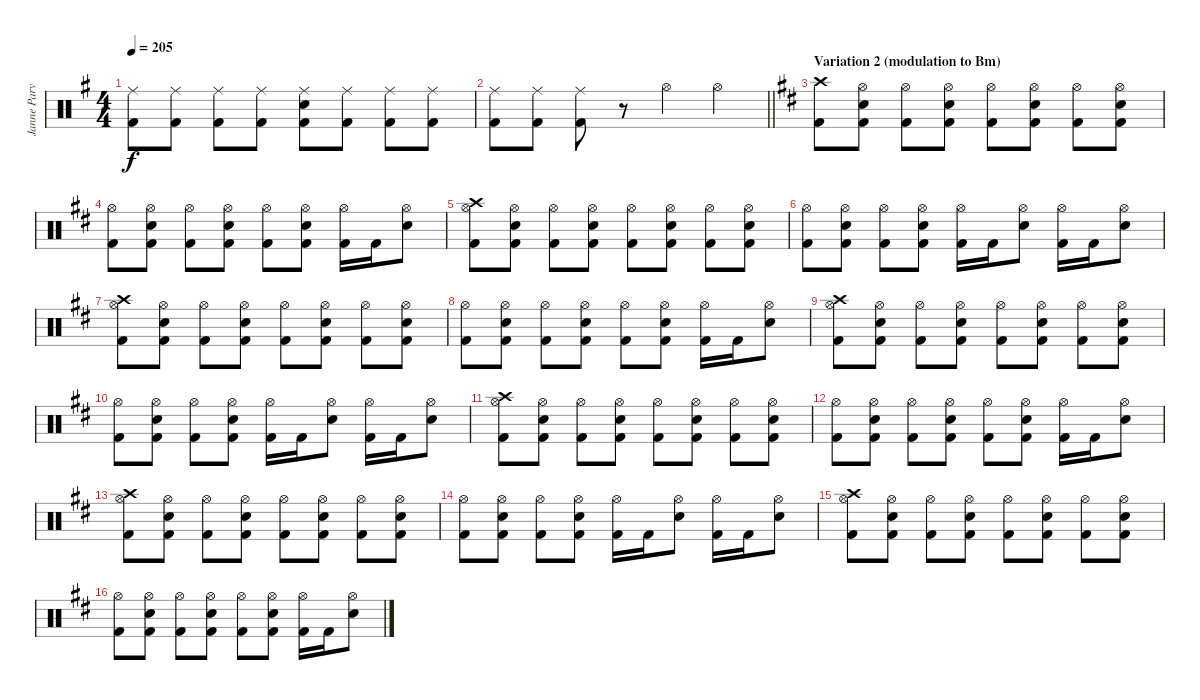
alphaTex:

\track ("Janne Parviainen" "Janne Parv") {instrument percussion}
\staff {score}
\articulation defaults
\ts (4 4)
\tempo 205
\clef neutral
\ks eminor
("Ride (middle)" "Kick (hit) 2").8{dy f} ("Ride (middle)" "Kick (hit) 2").8 ("Ride (middle)" "Kick (hit) 2").8 ("Ride (middle)" "Kick (hit) 2").8 ("Ride (middle)" "Snare (hit) 2" "Kick (hit) 2").8 ("Ride (middle)" "Kick (hit) 2").8 ("Ride (middle)" "Kick (hit) 2").8 ("Ride (middle)" "Kick (hit) 2").8 |
\barLineRight lightlight
("Ride (middle)" "Kick (hit) 2").8 ("Ride (middle)" "Kick (hit) 2").8 ("Ride (middle)" "Kick (hit) 2").8 r.8 "Hi-Hat (open)".4 "Hi-Hat (open)".4 |
\section ("" "Variation 2 (modulation to Bm)")
\ks bminor
("Crash high (hit)" "Kick (hit) 2").8 ("Hi-Hat (open)" "Snare (hit) 2" "Kick (hit) 2").8 ("Hi-Hat (open)" "Kick (hit) 2").8 ("Hi-Hat (open)" "Snare (hit) 2" "Kick (hit) 2").8 ("Hi-Hat (open)" "Kick (hit) 2").8 ("Hi-Hat (open)" "Snare (hit) 2" "Kick (hit) 2").8 ("Hi-Hat (open)" "Kick (hit) 2").8 ("Hi-Hat (open)" "Snare (hit) 2" "Kick (hit) 2").8 |
("Hi-Hat (open)" "Kick (hit) 2").8 ("Hi-Hat (open)" "Snare (hit) 2" "Kick (hit) 2").8 ("Hi-Hat (open)" "Kick (hit) 2").8 ("Hi-Hat (open)" "Snare (hit) 2" "Kick (hit) 2").8 ("Hi-Hat (open)" "Kick (hit) 2").8 ("Hi-Hat (open)" "Snare (hit) 2" "Kick (hit) 2").8 ("Hi-Hat (open)" "Kick (hit) 2").16 "Kick (hit) 2".16 ("Hi-Hat (open)" "Snare (hit) 2").8 |
("Crash high (hit)" "Hi-Hat (open)" "Kick (hit) 2").8 ("Hi-Hat (open)" "Snare (hit) 2" "Kick (hit) 2").8 ("Hi-Hat (open)" "Kick (hit) 2").8 ("Hi-Hat (open)" "Snare (hit) 2" "Kick (hit) 2").8 ("Hi-Hat (open)" "Kick (hit) 2").8 ("Hi-Hat (open)" "Snare (hit) 2" "Kick (hit) 2").8 ("Hi-Hat (open)" "Kick (hit) 2").8 ("Hi-Hat (open)" "Snare (hit) 2" "Kick (hit) 2").8 |
("Hi-Hat (open)" "Kick (hit) 2").8 ("Hi-Hat (open)" "Snare (hit) 2" "Kick (hit) 2").8 ("Hi-Hat (open)" "Kick (hit) 2").8 ("Hi-Hat (open)" "Snare (hit) 2" "Kick (hit) 2").8 ("Hi-Hat (open)" "Kick (hit) 2").16 "Kick (hit) 2".16 ("Hi-Hat (open)" "Snare (hit) 2").8 ("Hi-Hat (open)" "Kick (hit) 2").16 "Kick (hit) 2".16 ("Hi-Hat (open)" "Snare (hit) 2").8 |
("Crash high (hit)" "Hi-Hat (open)" "Kick (hit) 2").8 ("Hi-Hat (open)" "Snare (hit) 2" "Kick (hit) 2").8 ("Hi-Hat (open)" "Kick (hit) 2").8 ("Hi-Hat (open)" "Snare (hit) 2" "Kick (hit) 2").8 ("Hi-Hat (open)" "Kick (hit) 2").8 ("Hi-Hat (open)" "Snare (hit) 2" "Kick (hit) 2").8 ("Hi-Hat (open)" "Kick (hit) 2").8 ("Hi-Hat (open)" "Snare (hit) 2" "Kick (hit) 2").8 |
("Hi-Hat (open)" "Kick (hit) 2").8 ("Hi-Hat (open)" "Snare (hit) 2" "Kick (hit) 2").8 ("Hi-Hat (open)" "Kick (hit) 2").8 ("Hi-Hat (open)" "Snare (hit) 2" "Kick (hit) 2").8 ("Hi-Hat (open)" "Kick (hit) 2").8 ("Hi-Hat (open)" "Snare (hit) 2" "Kick (hit) 2").8 ("Hi-Hat (open)" "Kick (hit) 2").16 "Kick (hit) 2".16 ("Hi-Hat (open)" "Snare (hit) 2").8 |
("Crash high (hit)" "Hi-Hat (open)" "Kick (hit) 2").8 ("Hi-Hat (open)" "Snare (hit) 2" "Kick (hit) 2").8 ("Hi-Hat (open)" "Kick (hit) 2").8 ("Hi-Hat (open)" "Snare (hit) 2" "Kick (hit) 2").8 ("Hi-Hat (open)" "Kick (hit) 2").8 ("Hi-Hat (open)" "Snare (hit) 2" "Kick (hit) 2").8 ("Hi-Hat (open)" "Kick (hit) 2").8 ("Hi-Hat (open)" "Snare (hit) 2" "Kick (hit) 2").8 |
("Hi-Hat (open)" "Kick (hit) 2").8 ("Hi-Hat (open)" "Snare (hit) 2" "Kick (hit) 2").8 ("Hi-Hat (open)" "Kick (hit) 2").8 ("Hi-Hat (open)" "Snare (hit) 2" "Kick (hit) 2").8 ("Hi-Hat (open)" "Kick (hit) 2").16 "Kick (hit) 2".16 ("Hi-Hat (open)" "Snare (hit) 2").8 ("Hi-Hat (open)" "Kick (hit) 2").16 "Kick (hit) 2".16 ("Hi-Hat (open)" "Snare (hit) 2").8 |
("Crash high (hit)" "Hi-Hat (open)" "Kick (hit) 2").8 ("Hi-Hat (open)" "Snare (hit) 2" "Kick (hit) 2").8 ("Hi-Hat (open)" "Kick (hit) 2").8 ("Hi-Hat (open)" "Snare (hit) 2" "Kick (hit) 2").8 ("Hi-Hat (open)" "Kick (hit) 2").8 ("Hi-Hat (open)" "Snare (hit) 2" "Kick (hit) 2").8 ("Hi-Hat (open)" "Kick (hit) 2").8 ("Hi-Hat (open)" "Snare (hit) 2" "Kick (hit) 2").8 |
("Hi-Hat (open)" "Kick (hit) 2").8 ("Hi-Hat (open)" "Snare (hit) 2" "Kick (hit) 2").8 ("Hi-Hat (open)" "Kick (hit) 2").8 ("Hi-Hat (open)" "Snare (hit) 2" "Kick (hit) 2").8 ("Hi-Hat (open)" "Kick (hit) 2").8 ("Hi-Hat (open)" "Snare (hit) 2" "Kick (hit) 2").8 ("Hi-Hat (open)" "Kick (hit) 2").16 "Kick (hit) 2".16 ("Hi-Hat (open)" "Snare (hit) 2").8 |
("Crash high (hit)" "Hi-Hat (open)" "Kick (hit) 2").8 ("Hi-Hat (open)" "Snare (hit) 2" "Kick (hit) 2").8 ("Hi-Hat (open)" "Kick (hit) 2").8 ("Hi-Hat (open)" "Snare (hit) 2" "Kick (hit) 2").8 ("Hi-Hat (open)" "Kick (hit) 2").8 ("Hi-Hat (open)" "Snare (hit) 2" "Kick (hit) 2").8 ("Hi-Hat (open)" "Kick (hit) 2").8 ("Hi-Hat (open)" "Snare (hit) 2" "Kick (hit) 2").8 |
("Hi-Hat (open)" "Kick (hit) 2").8 ("Hi-Hat (open)" "Snare (hit) 2" "Kick (hit) 2").8 ("Hi-Hat (open)" "Kick (hit) 2").8 ("Hi-Hat (open)" "Snare (hit) 2" "Kick (hit) 2").8 ("Hi-Hat (open)" "Kick (hit) 2").16 "Kick (hit) 2".16 ("Hi-Hat (open)" "Snare (hit) 2").8 ("Hi-Hat (open)" "Kick (hit) 2").16 "Kick (hit) 2".16 ("Hi-Hat (open)" "Snare (hit) 2").8 |
("Crash high (hit)" "Hi-Hat (open)" "Kick (hit) 2").8 ("Hi-Hat (open)" "Snare (hit) 2" "Kick (hit) 2").8 ("Hi-Hat (open)" "Kick (hit) 2").8 ("Hi-Hat (open)" "Snare (hit) 2" "Kick (hit) 2").8 ("Hi-Hat (open)" "Kick (hit) 2").8 ("Hi-Hat (open)" "Snare (hit) 2" "Kick (hit) 2").8 ("Hi-Hat (open)" "Kick (hit) 2").8 ("Hi-Hat (open)" "Snare (hit) 2" "Kick (hit) 2").8 |
("Hi-Hat (open)" "Kick (hit) 2").8 ("Hi-Hat (open)" "Snare (hit) 2" "Kick (hit) 2").8 ("Hi-Hat (open)" "Kick (hit) 2").8 ("Hi-Hat (open)" "Snare (hit) 2" "Kick (hit) 2").8 ("Hi-Hat (open)" "Kick (hit) 2").8 ("Hi-Hat (open)" "Snare (hit) 2" "Kick (hit) 2").8 ("Hi-Hat (open)" "Kick (hit) 2").16 "Kick (hit) 2".16 ("Hi-Hat (open)" "Snare (hit) 2").8
